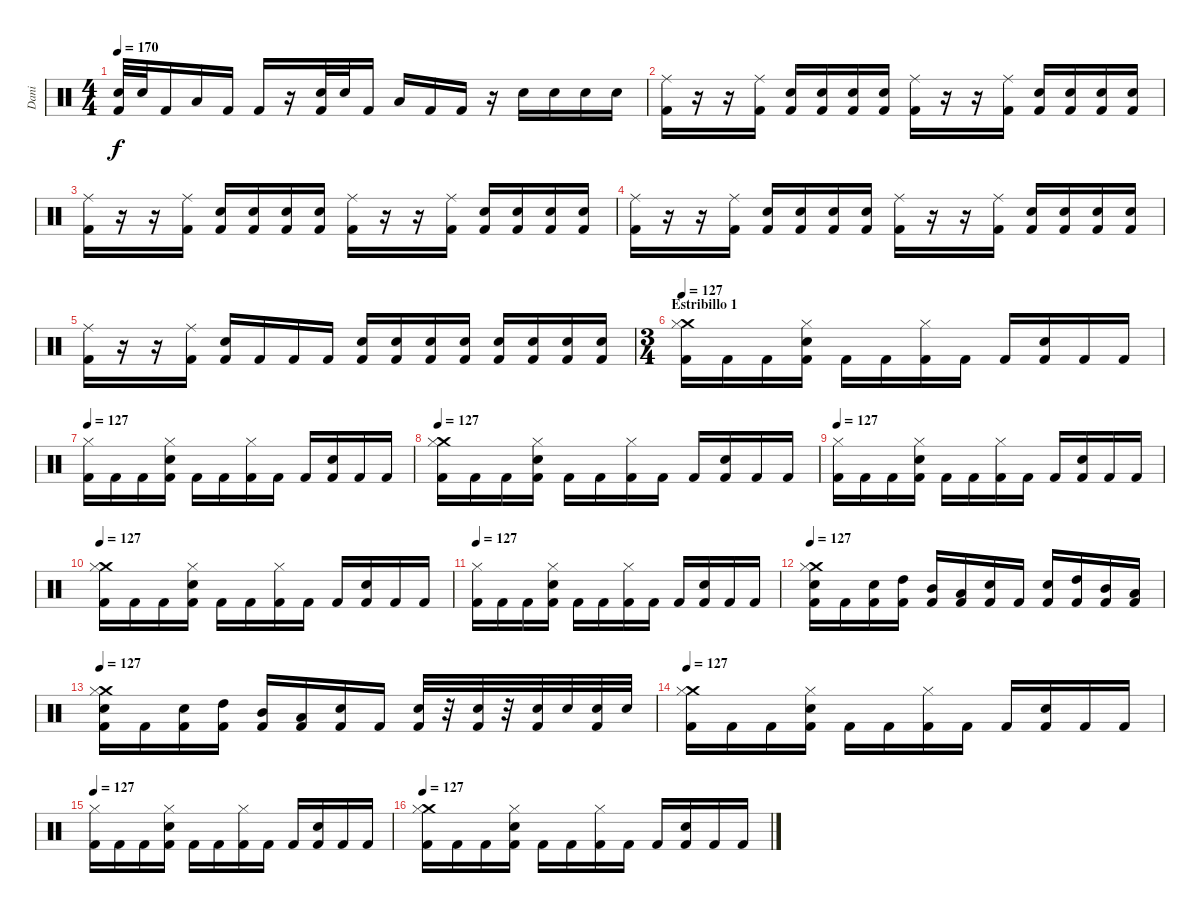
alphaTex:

\track ("Dani" "Dani") {instrument percussion}
\staff {score}
\articulation defaults
\ts (4 4)
\tempo 170
\clef neutral
\ks c
("Electric Snare (hit)" "Kick (hit) 2").32{dy f} "Electric Snare (hit)".32 "Kick (hit) 2".16 "Low Tom (hit)".16 "Kick (hit) 2".16 "Kick (hit) 2".16 r.16 ("Electric Snare (hit)" "Kick (hit) 2").32 "Electric Snare (hit)".32 "Kick (hit) 2".16 "Low Tom (hit)".16 "Kick (hit) 2".16 "Kick (hit) 2".16 r.16 "Electric Snare (hit)".16 "Electric Snare (hit)".16 "Electric Snare (hit)".16 "Electric Snare (hit)".16 |
("Ride (middle)" "Kick (hit) 2").16 r.16 r.16 ("Ride (middle)" "Kick (hit) 2").16 ("Electric Snare (hit)" "Kick (hit) 2").16 ("Electric Snare (hit)" "Kick (hit) 2").16 ("Electric Snare (hit)" "Kick (hit) 2").16 ("Electric Snare (hit)" "Kick (hit) 2").16 ("Ride (middle)" "Kick (hit) 2").16 r.16 r.16 ("Ride (middle)" "Kick (hit) 2").16 ("Electric Snare (hit)" "Kick (hit) 2").16 ("Electric Snare (hit)" "Kick (hit) 2").16 ("Electric Snare (hit)" "Kick (hit) 2").16 ("Electric Snare (hit)" "Kick (hit) 2").16 |
("Ride (middle)" "Kick (hit) 2").16 r.16 r.16 ("Ride (middle)" "Kick (hit) 2").16 ("Electric Snare (hit)" "Kick (hit) 2").16 ("Electric Snare (hit)" "Kick (hit) 2").16 ("Electric Snare (hit)" "Kick (hit) 2").16 ("Electric Snare (hit)" "Kick (hit) 2").16 ("Ride (middle)" "Kick (hit) 2").16 r.16 r.16 ("Ride (middle)" "Kick (hit) 2").16 ("Electric Snare (hit)" "Kick (hit) 2").16 ("Electric Snare (hit)" "Kick (hit) 2").16 ("Electric Snare (hit)" "Kick (hit) 2").16 ("Electric Snare (hit)" "Kick (hit) 2").16 |
("Ride (middle)" "Kick (hit) 2").16 r.16 r.16 ("Ride (middle)" "Kick (hit) 2").16 ("Electric Snare (hit)" "Kick (hit) 2").16 ("Electric Snare (hit)" "Kick (hit) 2").16 ("Electric Snare (hit)" "Kick (hit) 2").16 ("Electric Snare (hit)" "Kick (hit) 2").16 ("Ride (middle)" "Kick (hit) 2").16 r.16 r.16 ("Ride (middle)" "Kick (hit) 2").16 ("Electric Snare (hit)" "Kick (hit) 2").16 ("Electric Snare (hit)" "Kick (hit) 2").16 ("Electric Snare (hit)" "Kick (hit) 2").16 ("Electric Snare (hit)" "Kick (hit) 2").16 |
("Ride (middle)" "Kick (hit) 2").16 r.16 r.16 ("Ride (middle)" "Kick (hit) 2").16 ("Electric Snare (hit)" "Kick (hit) 2").16 "Kick (hit) 2".16 "Kick (hit) 2".16 "Kick (hit) 2".16 ("Electric Snare (hit)" "Kick (hit) 2").16 ("Electric Snare (hit)" "Kick (hit) 2").16 ("Electric Snare (hit)" "Kick (hit) 2").16 ("Electric Snare (hit)" "Kick (hit) 2").16 ("Electric Snare (hit)" "Kick (hit) 2").16 ("Electric Snare (hit)" "Kick (hit) 2").16 ("Electric Snare (hit)" "Kick (hit) 2").16 ("Electric Snare (hit)" "Kick (hit) 2").16 |
\ts (3 4)
\section ("" "Estribillo 1")
\tempo 127
("Crash medium (hit)" "Hi-Hat (closed)" "Kick (hit) 2").16 "Kick (hit) 2".16 "Kick (hit) 2".16 ("Hi-Hat (closed)" "Electric Snare (hit)" "Kick (hit) 2").16 "Kick (hit) 2".16 "Kick (hit) 2".16 ("Hi-Hat (closed)" "Kick (hit) 2").16 "Kick (hit) 2".16 "Kick (hit) 2".16 ("Electric Snare (hit)" "Kick (hit) 2").16 "Kick (hit) 2".16 "Kick (hit) 2".16 |
\tempo 127
("Hi-Hat (closed)" "Kick (hit) 2").16 "Kick (hit) 2".16 "Kick (hit) 2".16 ("Hi-Hat (closed)" "Electric Snare (hit)" "Kick (hit) 2").16 "Kick (hit) 2".16 "Kick (hit) 2".16 ("Hi-Hat (closed)" "Kick (hit) 2").16 "Kick (hit) 2".16 "Kick (hit) 2".16 ("Electric Snare (hit)" "Kick (hit) 2").16 "Kick (hit) 2".16 "Kick (hit) 2".16 |
\tempo 127
("Crash medium (hit)" "Hi-Hat (closed)" "Kick (hit) 2").16 "Kick (hit) 2".16 "Kick (hit) 2".16 ("Hi-Hat (closed)" "Electric Snare (hit)" "Kick (hit) 2").16 "Kick (hit) 2".16 "Kick (hit) 2".16 ("Hi-Hat (closed)" "Kick (hit) 2").16 "Kick (hit) 2".16 "Kick (hit) 2".16 ("Electric Snare (hit)" "Kick (hit) 2").16 "Kick (hit) 2".16 "Kick (hit) 2".16 |
\tempo 127
("Hi-Hat (closed)" "Kick (hit) 2").16 "Kick (hit) 2".16 "Kick (hit) 2".16 ("Hi-Hat (closed)" "Electric Snare (hit)" "Kick (hit) 2").16 "Kick (hit) 2".16 "Kick (hit) 2".16 ("Hi-Hat (closed)" "Kick (hit) 2").16 "Kick (hit) 2".16 "Kick (hit) 2".16 ("Electric Snare (hit)" "Kick (hit) 2").16 "Kick (hit) 2".16 "Kick (hit) 2".16 |
\tempo 127
("Crash medium (hit)" "Hi-Hat (closed)" "Kick (hit) 2").16 "Kick (hit) 2".16 "Kick (hit) 2".16 ("Hi-Hat (closed)" "Electric Snare (hit)" "Kick (hit) 2").16 "Kick (hit) 2".16 "Kick (hit) 2".16 ("Hi-Hat (closed)" "Kick (hit) 2").16 "Kick (hit) 2".16 "Kick (hit) 2".16 ("Electric Snare (hit)" "Kick (hit) 2").16 "Kick (hit) 2".16 "Kick (hit) 2".16 |
\tempo 127
("Hi-Hat (closed)" "Kick (hit) 2").16 "Kick (hit) 2".16 "Kick (hit) 2".16 ("Hi-Hat (closed)" "Electric Snare (hit)" "Kick (hit) 2").16 "Kick (hit) 2".16 "Kick (hit) 2".16 ("Hi-Hat (closed)" "Kick (hit) 2").16 "Kick (hit) 2".16 "Kick (hit) 2".16 ("Electric Snare (hit)" "Kick (hit) 2").16 "Kick (hit) 2".16 "Kick (hit) 2".16 |
\tempo 127
("Crash medium (hit)" "Hi-Hat (closed)" "Electric Snare (hit)" "Kick (hit) 2").16 "Kick (hit) 2".16 ("Electric Snare (hit)" "Kick (hit) 2").16 ("High Tom (hit)" "Kick (hit) 2").16 ("Mid Tom (hit)" "Kick (hit) 2").16 ("Low Tom (hit)" "Kick (hit) 2").16 ("Electric Snare (hit)" "Kick (hit) 2").16 "Kick (hit) 2".16 ("Electric Snare (hit)" "Kick (hit) 2").16 ("High Tom (hit)" "Kick (hit) 2").16 ("Mid Tom (hit)" "Kick (hit) 2").16 ("Low Tom (hit)" "Kick (hit) 2").16 |
\tempo 127
("Crash medium (hit)" "Hi-Hat (closed)" "Electric Snare (hit)" "Kick (hit) 2").16 "Kick (hit) 2".16 ("Electric Snare (hit)" "Kick (hit) 2").16 ("High Tom (hit)" "Kick (hit) 2").16 ("Mid Tom (hit)" "Kick (hit) 2").16 ("Low Tom (hit)" "Kick (hit) 2").16 ("Electric Snare (hit)" "Kick (hit) 2").16 "Kick (hit) 2".16 ("Electric Snare (hit)" "Kick (hit) 2").32 r.32 ("Electric Snare (hit)" "Kick (hit) 2").32 r.32 ("Electric Snare (hit)" "Kick (hit) 2").32 "Electric Snare (hit)".32 ("Electric Snare (hit)" "Kick (hit) 2").32 "Electric Snare (hit)".32 |
\tempo 127
("Crash medium (hit)" "Hi-Hat (closed)" "Kick (hit) 2").16 "Kick (hit) 2".16 "Kick (hit) 2".16 ("Hi-Hat (closed)" "Electric Snare (hit)" "Kick (hit) 2").16 "Kick (hit) 2".16 "Kick (hit) 2".16 ("Hi-Hat (closed)" "Kick (hit) 2").16 "Kick (hit) 2".16 "Kick (hit) 2".16 ("Electric Snare (hit)" "Kick (hit) 2").16 "Kick (hit) 2".16 "Kick (hit) 2".16 |
\tempo 127
("Hi-Hat (closed)" "Kick (hit) 2").16 "Kick (hit) 2".16 "Kick (hit) 2".16 ("Hi-Hat (closed)" "Electric Snare (hit)" "Kick (hit) 2").16 "Kick (hit) 2".16 "Kick (hit) 2".16 ("Hi-Hat (closed)" "Kick (hit) 2").16 "Kick (hit) 2".16 "Kick (hit) 2".16 ("Electric Snare (hit)" "Kick (hit) 2").16 "Kick (hit) 2".16 "Kick (hit) 2".16 |
\tempo 127
("Crash medium (hit)" "Hi-Hat (closed)" "Kick (hit) 2").16 "Kick (hit) 2".16 "Kick (hit) 2".16 ("Hi-Hat (closed)" "Electric Snare (hit)" "Kick (hit) 2").16 "Kick (hit) 2".16 "Kick (hit) 2".16 ("Hi-Hat (closed)" "Kick (hit) 2").16 "Kick (hit) 2".16 "Kick (hit) 2".16 ("Electric Snare (hit)" "Kick (hit) 2").16 "Kick (hit) 2".16 "Kick (hit) 2".16
